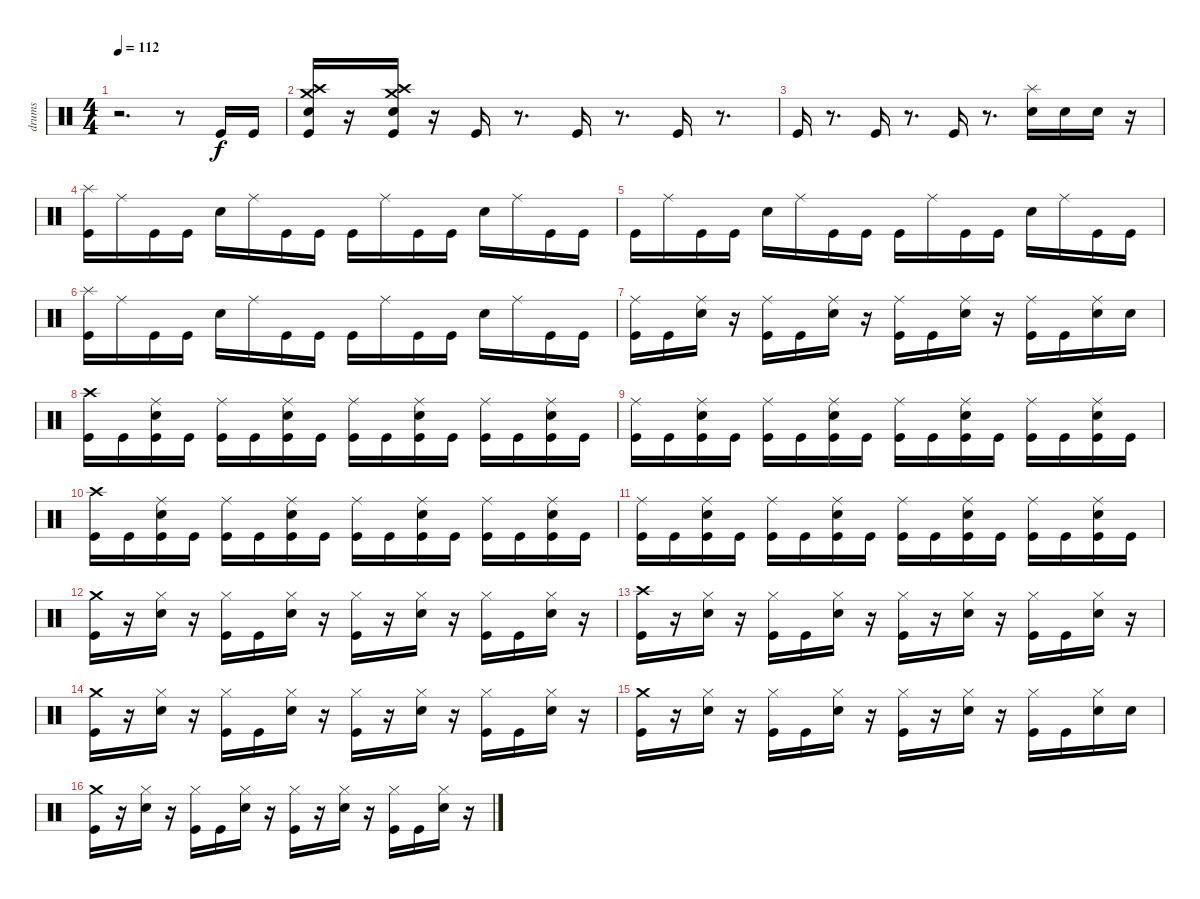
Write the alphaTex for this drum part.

\track ("drums" "drums") {instrument percussion}
\staff {score}
\articulation defaults
\ts (4 4)
\tempo 112
\clef neutral
\ks c
r.2{d dy f} r.8 "Kick (hit)".16 "Kick (hit)".16 |
("Crash high (hit)" "Crash medium (hit)" "Electric Snare (hit)" "Kick (hit)").16 r.16 ("Crash medium (hit)" "Crash high (hit)" "Electric Snare (hit)" "Kick (hit)").16 r.16 "Kick (hit)".16 r.8{d} "Kick (hit)".16 r.8{d} "Kick (hit)".16 r.8{d} |
"Kick (hit)".16 r.8{d} "Kick (hit)".16 r.8{d} "Kick (hit)".16 r.8{d} ("Splash (hit)" "Electric Snare (hit)").16 "Electric Snare (hit)".16 "Electric Snare (hit)".16 r.16 |
("Splash (hit)" "Kick (hit)").16 "Ride (middle)".16 "Kick (hit)".16 "Kick (hit)".16 "Electric Snare (hit)".16 "Ride (middle)".16 "Kick (hit)".16 "Kick (hit)".16 "Kick (hit)".16 "Ride (middle)".16 "Kick (hit)".16 "Kick (hit)".16 "Electric Snare (hit)".16 "Ride (middle)".16 "Kick (hit)".16 "Kick (hit)".16 |
"Kick (hit)".16 "Ride (middle)".16 "Kick (hit)".16 "Kick (hit)".16 "Electric Snare (hit)".16 "Ride (middle)".16 "Kick (hit)".16 "Kick (hit)".16 "Kick (hit)".16 "Ride (middle)".16 "Kick (hit)".16 "Kick (hit)".16 "Electric Snare (hit)".16 "Ride (middle)".16 "Kick (hit)".16 "Kick (hit)".16 |
("Splash (hit)" "Kick (hit)").16 "Ride (middle)".16 "Kick (hit)".16 "Kick (hit)".16 "Electric Snare (hit)".16 "Ride (middle)".16 "Kick (hit)".16 "Kick (hit)".16 "Kick (hit)".16 "Ride (middle)".16 "Kick (hit)".16 "Kick (hit)".16 "Electric Snare (hit)".16 "Ride (middle)".16 "Kick (hit)".16 "Kick (hit)".16 |
("Ride (middle)" "Kick (hit)").16 "Kick (hit)".16 ("Ride (middle)" "Electric Snare (hit)").16 r.16 ("Ride (middle)" "Kick (hit)").16 "Kick (hit)".16 ("Ride (middle)" "Electric Snare (hit)").16 r.16 ("Ride (middle)" "Kick (hit)").16 "Kick (hit)".16 ("Ride (middle)" "Electric Snare (hit)").16 r.16 ("Ride (middle)" "Kick (hit)").16 "Kick (hit)".16 ("Ride (middle)" "Electric Snare (hit)").16 "Electric Snare (hit)".16 |
("Crash high (hit)" "Kick (hit)").16 "Kick (hit)".16 ("Ride (middle)" "Kick (hit)" "Electric Snare (hit)").16 "Kick (hit)".16 ("Ride (middle)" "Kick (hit)").16 "Kick (hit)".16 ("Ride (middle)" "Kick (hit)" "Electric Snare (hit)").16 "Kick (hit)".16 ("Ride (middle)" "Kick (hit)").16 "Kick (hit)".16 ("Ride (middle)" "Kick (hit)" "Electric Snare (hit)").16 "Kick (hit)".16 ("Ride (middle)" "Kick (hit)").16 "Kick (hit)".16 ("Ride (middle)" "Kick (hit)" "Electric Snare (hit)").16 "Kick (hit)".16 |
("Ride (middle)" "Kick (hit)").16 "Kick (hit)".16 ("Ride (middle)" "Kick (hit)" "Electric Snare (hit)").16 "Kick (hit)".16 ("Ride (middle)" "Kick (hit)").16 "Kick (hit)".16 ("Ride (middle)" "Kick (hit)" "Electric Snare (hit)").16 "Kick (hit)".16 ("Ride (middle)" "Kick (hit)").16 "Kick (hit)".16 ("Ride (middle)" "Kick (hit)" "Electric Snare (hit)").16 "Kick (hit)".16 ("Ride (middle)" "Kick (hit)").16 "Kick (hit)".16 ("Ride (middle)" "Kick (hit)" "Electric Snare (hit)").16 "Kick (hit)".16 |
("Crash high (hit)" "Kick (hit)").16 "Kick (hit)".16 ("Ride (middle)" "Kick (hit)" "Electric Snare (hit)").16 "Kick (hit)".16 ("Ride (middle)" "Kick (hit)").16 "Kick (hit)".16 ("Ride (middle)" "Kick (hit)" "Electric Snare (hit)").16 "Kick (hit)".16 ("Ride (middle)" "Kick (hit)").16 "Kick (hit)".16 ("Ride (middle)" "Kick (hit)" "Electric Snare (hit)").16 "Kick (hit)".16 ("Ride (middle)" "Kick (hit)").16 "Kick (hit)".16 ("Ride (middle)" "Kick (hit)" "Electric Snare (hit)").16 "Kick (hit)".16 |
("Ride (middle)" "Kick (hit)").16 "Kick (hit)".16 ("Ride (middle)" "Kick (hit)" "Electric Snare (hit)").16 "Kick (hit)".16 ("Ride (middle)" "Kick (hit)").16 "Kick (hit)".16 ("Ride (middle)" "Kick (hit)" "Electric Snare (hit)").16 "Kick (hit)".16 ("Ride (middle)" "Kick (hit)").16 "Kick (hit)".16 ("Ride (middle)" "Kick (hit)" "Electric Snare (hit)").16 "Kick (hit)".16 ("Ride (middle)" "Kick (hit)").16 "Kick (hit)".16 ("Ride (middle)" "Kick (hit)" "Electric Snare (hit)").16 "Kick (hit)".16 |
("Kick (hit)" "Crash medium (hit)").16 r.16 ("Hi-Hat (closed)" "Electric Snare (hit)").16 r.16 ("Hi-Hat (closed)" "Kick (hit)").16 "Kick (hit)".16 ("Hi-Hat (closed)" "Electric Snare (hit)").16 r.16 ("Hi-Hat (closed)" "Kick (hit)").16 r.16 ("Hi-Hat (closed)" "Electric Snare (hit)").16 r.16 ("Hi-Hat (closed)" "Kick (hit)").16 "Kick (hit)".16 ("Hi-Hat (closed)" "Electric Snare (hit)").16 r.16 |
("Kick (hit)" "Crash high (hit)").16 r.16 ("Hi-Hat (closed)" "Electric Snare (hit)").16 r.16 ("Hi-Hat (closed)" "Kick (hit)").16 "Kick (hit)".16 ("Hi-Hat (closed)" "Electric Snare (hit)").16 r.16 ("Hi-Hat (closed)" "Kick (hit)").16 r.16 ("Hi-Hat (closed)" "Electric Snare (hit)").16 r.16 ("Hi-Hat (closed)" "Kick (hit)").16 "Kick (hit)".16 ("Hi-Hat (closed)" "Electric Snare (hit)").16 r.16 |
("Kick (hit)" "Crash medium (hit)").16 r.16 ("Hi-Hat (closed)" "Electric Snare (hit)").16 r.16 ("Hi-Hat (closed)" "Kick (hit)").16 "Kick (hit)".16 ("Hi-Hat (closed)" "Electric Snare (hit)").16 r.16 ("Hi-Hat (closed)" "Kick (hit)").16 r.16 ("Hi-Hat (closed)" "Electric Snare (hit)").16 r.16 ("Hi-Hat (closed)" "Kick (hit)").16 "Kick (hit)".16 ("Hi-Hat (closed)" "Electric Snare (hit)").16 r.16 |
("Kick (hit)" "Crash medium (hit)").16 r.16 ("Hi-Hat (closed)" "Electric Snare (hit)").16 r.16 ("Hi-Hat (closed)" "Kick (hit)").16 "Kick (hit)".16 ("Hi-Hat (closed)" "Electric Snare (hit)").16 r.16 ("Hi-Hat (closed)" "Kick (hit)").16 r.16 ("Hi-Hat (closed)" "Electric Snare (hit)").16 r.16 ("Hi-Hat (closed)" "Kick (hit)").16 "Kick (hit)".16 ("Hi-Hat (closed)" "Electric Snare (hit)").16 "Electric Snare (hit)".16 |
("Kick (hit)" "Crash medium (hit)").16 r.16 ("Hi-Hat (closed)" "Electric Snare (hit)").16 r.16 ("Hi-Hat (closed)" "Kick (hit)").16 "Kick (hit)".16 ("Hi-Hat (closed)" "Electric Snare (hit)").16 r.16 ("Hi-Hat (closed)" "Kick (hit)").16 r.16 ("Hi-Hat (closed)" "Electric Snare (hit)").16 r.16 ("Hi-Hat (closed)" "Kick (hit)").16 "Kick (hit)".16 ("Hi-Hat (closed)" "Electric Snare (hit)").16 r.16
